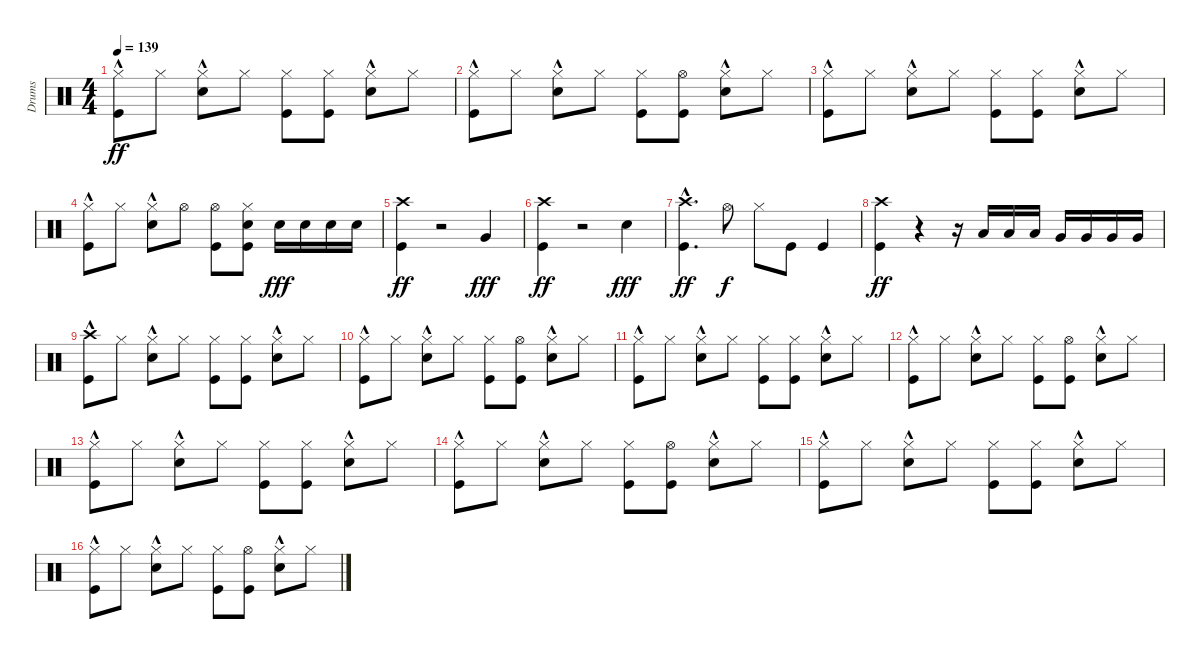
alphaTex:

\track ("Drums" "Drums") {instrument percussion}
\staff {score}
\articulation defaults
\ts (4 4)
\tempo 139
\clef neutral
\ks c
("Hi-Hat (closed)" "Kick (hit)"{hac}).8{dy ff} "Hi-Hat (closed)".8 ("Hi-Hat (closed)" "Snare (hit) 2"{hac}).8 "Hi-Hat (closed)".8 ("Hi-Hat (closed)" "Kick (hit)").8 ("Hi-Hat (closed)" "Kick (hit)").8 ("Hi-Hat (closed)" "Snare (hit) 2"{hac}).8 "Hi-Hat (closed)".8 |
("Hi-Hat (closed)" "Kick (hit)"{hac}).8 "Hi-Hat (closed)".8 ("Hi-Hat (closed)" "Snare (hit) 2"{hac}).8 "Hi-Hat (closed)".8 ("Hi-Hat (closed)" "Kick (hit)").8 ("Hi-Hat (open)" "Kick (hit)").8 ("Hi-Hat (closed)" "Snare (hit) 2"{hac}).8 "Hi-Hat (closed)".8 |
("Hi-Hat (closed)" "Kick (hit)"{hac}).8 "Hi-Hat (closed)".8 ("Hi-Hat (closed)" "Snare (hit) 2"{hac}).8 "Hi-Hat (closed)".8 ("Hi-Hat (closed)" "Kick (hit)").8 ("Hi-Hat (closed)" "Kick (hit)").8 ("Hi-Hat (closed)" "Snare (hit) 2"{hac}).8 "Hi-Hat (closed)".8 |
("Hi-Hat (closed)" "Kick (hit)"{hac}).8 "Hi-Hat (closed)".8 ("Hi-Hat (closed)" "Snare (hit) 2"{hac}).8 "Hi-Hat (open)".8 ("Hi-Hat (open)" "Kick (hit)").8 ("Hi-Hat (closed)" "Snare (hit) 2" "Kick (hit)").8 "Snare (hit) 2".16{dy fff} "Snare (hit) 2".16 "Snare (hit) 2".16 "Snare (hit) 2".16 |
("Crash high (hit)" "Kick (hit)").4{dy ff} r.2 "Very Low Tom (hit)".4{dy fff} |
("Crash high (hit)" "Kick (hit)").4{dy ff} r.2 "Snare (hit) 2".4{dy fff} |
("Crash high (hit)"{hac} "Kick (hit)"{hac}).4{d dy ff} "Hi-Hat (open)".8{dy f} "Hi-Hat (closed)".8 "Kick (hit)".8 "Kick (hit)".4 |
("Crash high (hit)" "Kick (hit)").4{dy ff} r.4 r.16 "Low Tom (hit)".16 "Low Tom (hit)".16 "Low Tom (hit)".16 "Very Low Tom (hit)".16 "Very Low Tom (hit)".16 "Very Low Tom (hit)".16 "Very Low Tom (hit)".16 |
("Crash high (hit)" "Kick (hit)"{hac}).8 "Hi-Hat (closed)".8 ("Hi-Hat (closed)" "Snare (hit) 2"{hac}).8 "Hi-Hat (closed)".8 ("Hi-Hat (closed)" "Kick (hit)").8 ("Hi-Hat (closed)" "Kick (hit)").8 ("Hi-Hat (closed)" "Snare (hit) 2"{hac}).8 "Hi-Hat (closed)".8 |
("Hi-Hat (closed)" "Kick (hit)"{hac}).8 "Hi-Hat (closed)".8 ("Hi-Hat (closed)" "Snare (hit) 2"{hac}).8 "Hi-Hat (closed)".8 ("Hi-Hat (closed)" "Kick (hit)").8 ("Hi-Hat (open)" "Kick (hit)").8 ("Hi-Hat (closed)" "Snare (hit) 2"{hac}).8 "Hi-Hat (closed)".8 |
("Hi-Hat (closed)" "Kick (hit)"{hac}).8 "Hi-Hat (closed)".8 ("Hi-Hat (closed)" "Snare (hit) 2"{hac}).8 "Hi-Hat (closed)".8 ("Hi-Hat (closed)" "Kick (hit)").8 ("Hi-Hat (closed)" "Kick (hit)").8 ("Hi-Hat (closed)" "Snare (hit) 2"{hac}).8 "Hi-Hat (closed)".8 |
("Hi-Hat (closed)" "Kick (hit)"{hac}).8 "Hi-Hat (closed)".8 ("Hi-Hat (closed)" "Snare (hit) 2"{hac}).8 "Hi-Hat (closed)".8 ("Hi-Hat (closed)" "Kick (hit)").8 ("Hi-Hat (open)" "Kick (hit)").8 ("Hi-Hat (closed)" "Snare (hit) 2"{hac}).8 "Hi-Hat (closed)".8 |
("Hi-Hat (closed)" "Kick (hit)"{hac}).8 "Hi-Hat (closed)".8 ("Hi-Hat (closed)" "Snare (hit) 2"{hac}).8 "Hi-Hat (closed)".8 ("Hi-Hat (closed)" "Kick (hit)").8 ("Hi-Hat (closed)" "Kick (hit)").8 ("Hi-Hat (closed)" "Snare (hit) 2"{hac}).8 "Hi-Hat (closed)".8 |
("Hi-Hat (closed)" "Kick (hit)"{hac}).8 "Hi-Hat (closed)".8 ("Hi-Hat (closed)" "Snare (hit) 2"{hac}).8 "Hi-Hat (closed)".8 ("Hi-Hat (closed)" "Kick (hit)").8 ("Hi-Hat (open)" "Kick (hit)").8 ("Hi-Hat (closed)" "Snare (hit) 2"{hac}).8 "Hi-Hat (closed)".8 |
("Hi-Hat (closed)" "Kick (hit)"{hac}).8 "Hi-Hat (closed)".8 ("Hi-Hat (closed)" "Snare (hit) 2"{hac}).8 "Hi-Hat (closed)".8 ("Hi-Hat (closed)" "Kick (hit)").8 ("Hi-Hat (closed)" "Kick (hit)").8 ("Hi-Hat (closed)" "Snare (hit) 2"{hac}).8 "Hi-Hat (closed)".8 |
("Hi-Hat (closed)" "Kick (hit)"{hac}).8 "Hi-Hat (closed)".8 ("Hi-Hat (closed)" "Snare (hit) 2"{hac}).8 "Hi-Hat (closed)".8 ("Hi-Hat (closed)" "Kick (hit)").8 ("Hi-Hat (open)" "Kick (hit)").8 ("Hi-Hat (closed)" "Snare (hit) 2"{hac}).8 "Hi-Hat (closed)".8
